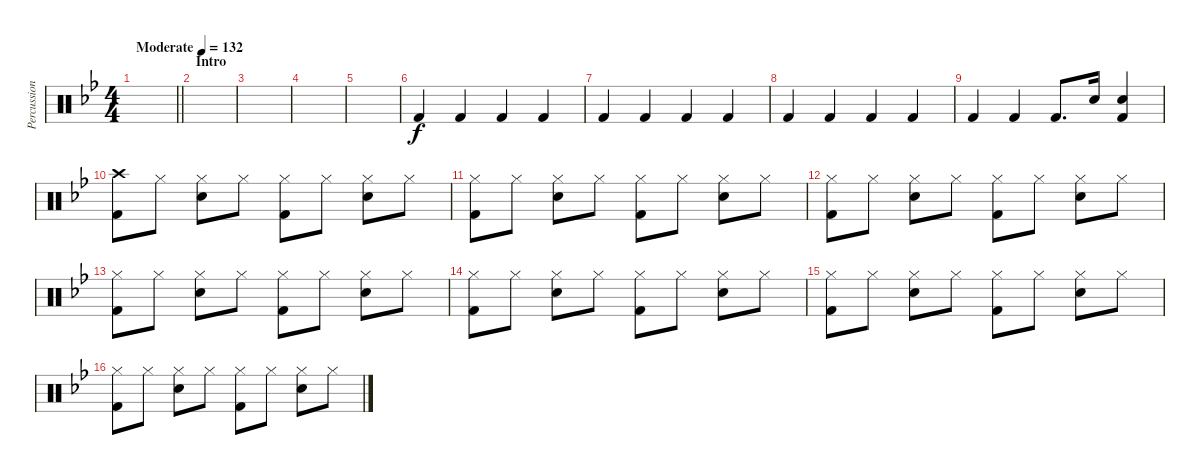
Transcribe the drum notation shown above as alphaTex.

\track ("Percussion" "Percussion") {instrument percussion}
\staff {score}
\articulation defaults
\ts (4 4)
\tempo (132 "Moderate")
\clef neutral
\barLineRight lightlight
\ks bb
|
\section ("" "Intro")
|
|
|
|
"Kick (hit) 2".4 "Kick (hit) 2".4 "Kick (hit) 2".4 "Kick (hit) 2".4 |
"Kick (hit) 2".4 "Kick (hit) 2".4 "Kick (hit) 2".4 "Kick (hit) 2".4 |
"Kick (hit) 2".4 "Kick (hit) 2".4 "Kick (hit) 2".4 "Kick (hit) 2".4 |
"Kick (hit) 2".4 "Kick (hit) 2".4 "Kick (hit) 2".8{d} "Snare (hit) 2".16 ("Snare (hit) 2" "Kick (hit) 2").4 |
("Crash high (hit)" "Kick (hit) 2").8 "Hi-Hat (closed)".8 ("Hi-Hat (closed)" "Snare (hit) 2").8 "Hi-Hat (closed)".8 ("Hi-Hat (closed)" "Kick (hit) 2").8 "Hi-Hat (closed)".8 ("Hi-Hat (closed)" "Snare (hit) 2").8 "Hi-Hat (closed)".8 |
("Hi-Hat (closed)" "Kick (hit) 2").8 "Hi-Hat (closed)".8 ("Hi-Hat (closed)" "Snare (hit) 2").8 "Hi-Hat (closed)".8 ("Hi-Hat (closed)" "Kick (hit) 2").8 "Hi-Hat (closed)".8 ("Hi-Hat (closed)" "Snare (hit) 2").8 "Hi-Hat (closed)".8 |
("Hi-Hat (closed)" "Kick (hit) 2").8 "Hi-Hat (closed)".8 ("Hi-Hat (closed)" "Snare (hit) 2").8 "Hi-Hat (closed)".8 ("Hi-Hat (closed)" "Kick (hit) 2").8 "Hi-Hat (closed)".8 ("Hi-Hat (closed)" "Snare (hit) 2").8 "Hi-Hat (closed)".8 |
("Hi-Hat (closed)" "Kick (hit) 2").8 "Hi-Hat (closed)".8 ("Hi-Hat (closed)" "Snare (hit) 2").8 "Hi-Hat (closed)".8 ("Hi-Hat (closed)" "Kick (hit) 2").8 "Hi-Hat (closed)".8 ("Hi-Hat (closed)" "Snare (hit) 2").8 "Hi-Hat (closed)".8 |
("Hi-Hat (closed)" "Kick (hit) 2").8 "Hi-Hat (closed)".8 ("Hi-Hat (closed)" "Snare (hit) 2").8 "Hi-Hat (closed)".8 ("Hi-Hat (closed)" "Kick (hit) 2").8 "Hi-Hat (closed)".8 ("Hi-Hat (closed)" "Snare (hit) 2").8 "Hi-Hat (closed)".8 |
("Hi-Hat (closed)" "Kick (hit) 2").8 "Hi-Hat (closed)".8 ("Hi-Hat (closed)" "Snare (hit) 2").8 "Hi-Hat (closed)".8 ("Hi-Hat (closed)" "Kick (hit) 2").8 "Hi-Hat (closed)".8 ("Hi-Hat (closed)" "Snare (hit) 2").8 "Hi-Hat (closed)".8 |
("Hi-Hat (closed)" "Kick (hit) 2").8 "Hi-Hat (closed)".8 ("Hi-Hat (closed)" "Snare (hit) 2").8 "Hi-Hat (closed)".8 ("Hi-Hat (closed)" "Kick (hit) 2").8 "Hi-Hat (closed)".8 ("Hi-Hat (closed)" "Snare (hit) 2").8 "Hi-Hat (closed)".8
